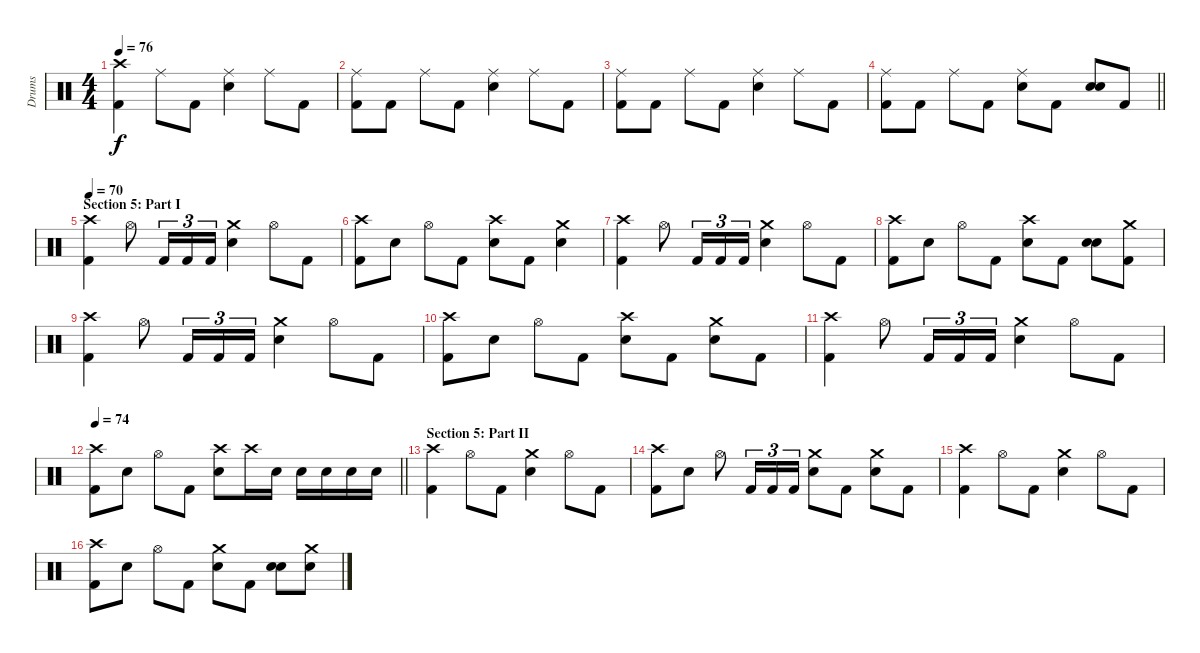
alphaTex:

\track ("Drums" "Drums") {instrument percussion}
\staff {score}
\articulation defaults
\ts (4 4)
\tempo 76
\clef neutral
\ks c
("Crash high (hit)" "Kick (hit) 2").4{dy f} "Ride (middle)".8 "Kick (hit) 2".8 ("Ride (middle)" "Electric Snare (hit)").4 "Ride (middle)".8 "Kick (hit) 2".8 |
("Ride (middle)" "Kick (hit) 2").8 "Kick (hit) 2".8 "Ride (middle)".8 "Kick (hit) 2".8 ("Ride (middle)" "Electric Snare (hit)").4 "Ride (middle)".8 "Kick (hit) 2".8 |
("Ride (middle)" "Kick (hit) 2").8 "Kick (hit) 2".8 "Ride (middle)".8 "Kick (hit) 2".8 ("Ride (middle)" "Electric Snare (hit)").4 "Ride (middle)".8 "Kick (hit) 2".8 |
\barLineRight lightlight
("Ride (middle)" "Kick (hit) 2").8 "Kick (hit) 2".8 "Ride (middle)".8 "Kick (hit) 2".8 ("Ride (middle)" "Electric Snare (hit)").8 "Kick (hit) 2".8 ("Electric Snare (hit)" "Electric Snare (hit)").8{bu 60} "Kick (hit) 2".8 |
\section ("" "Section 5: Part I")
\tempo 70
("Crash high (hit)" "Kick (hit) 2").4 "Hi-Hat (open)".8 "Kick (hit) 2".16{tu (3 2)} "Kick (hit) 2".16{tu (3 2)} "Kick (hit) 2".16{tu (3 2)} ("Crash medium (hit)" "Electric Snare (hit)").4 "Hi-Hat (open)".8 "Kick (hit) 2".8 |
("Crash high (hit)" "Kick (hit) 2").8 "Electric Snare (hit)".8 "Hi-Hat (open)".8 "Kick (hit) 2".8 ("Crash high (hit)" "Electric Snare (hit)").8 "Kick (hit) 2".8 ("Crash medium (hit)" "Electric Snare (hit)").4 |
("Crash high (hit)" "Kick (hit) 2").4 "Hi-Hat (open)".8 "Kick (hit) 2".16{tu (3 2)} "Kick (hit) 2".16{tu (3 2)} "Kick (hit) 2".16{tu (3 2)} ("Crash medium (hit)" "Electric Snare (hit)").4 "Hi-Hat (open)".8 "Kick (hit) 2".8 |
("Crash high (hit)" "Kick (hit) 2").8 "Electric Snare (hit)".8 "Hi-Hat (open)".8 "Kick (hit) 2".8 ("Crash high (hit)" "Electric Snare (hit)").8 "Kick (hit) 2".8 ("Electric Snare (hit)" "Electric Snare (hit)").8{bu 60} ("Crash medium (hit)" "Kick (hit) 2").8 |
("Crash high (hit)" "Kick (hit) 2").4 "Hi-Hat (open)".8 "Kick (hit) 2".16{tu (3 2)} "Kick (hit) 2".16{tu (3 2)} "Kick (hit) 2".16{tu (3 2)} ("Crash medium (hit)" "Electric Snare (hit)").4 "Hi-Hat (open)".8 "Kick (hit) 2".8 |
("Crash high (hit)" "Kick (hit) 2").8 "Electric Snare (hit)".8 "Hi-Hat (open)".8 "Kick (hit) 2".8 ("Crash high (hit)" "Electric Snare (hit)").8 "Kick (hit) 2".8 ("Crash medium (hit)" "Electric Snare (hit)").8 "Kick (hit) 2".8 |
("Crash high (hit)" "Kick (hit) 2").4 "Hi-Hat (open)".8 "Kick (hit) 2".16{tu (3 2)} "Kick (hit) 2".16{tu (3 2)} "Kick (hit) 2".16{tu (3 2)} ("Crash medium (hit)" "Electric Snare (hit)").4 "Hi-Hat (open)".8 "Kick (hit) 2".8 |
\tempo 74
\barLineRight lightlight
("Crash high (hit)" "Kick (hit) 2").8 "Electric Snare (hit)".8 "Hi-Hat (open)".8 "Kick (hit) 2".8 ("Crash high (hit)" "Electric Snare (hit)").8 "Crash high (hit)".16 "Electric Snare (hit)".16 "Electric Snare (hit)".16 "Electric Snare (hit)".16 "Electric Snare (hit)".16 "Electric Snare (hit)".16 |
\section ("" "Section 5: Part II")
("Crash high (hit)" "Kick (hit) 2").4 "Hi-Hat (open)".8 "Kick (hit) 2".8 ("Crash medium (hit)" "Electric Snare (hit)").4 "Hi-Hat (open)".8 "Kick (hit) 2".8 |
("Crash high (hit)" "Kick (hit) 2").8 "Electric Snare (hit)".8 "Hi-Hat (open)".8 "Kick (hit) 2".16{tu (3 2)} "Kick (hit) 2".16{tu (3 2)} "Kick (hit) 2".16{tu (3 2)} ("Crash medium (hit)" "Electric Snare (hit)").8 "Kick (hit) 2".8 ("Crash medium (hit)" "Electric Snare (hit)").8 "Kick (hit) 2".8 |
("Crash high (hit)" "Kick (hit) 2").4 "Hi-Hat (open)".8 "Kick (hit) 2".8 ("Crash medium (hit)" "Electric Snare (hit)").4 "Hi-Hat (open)".8 "Kick (hit) 2".8 |
("Crash high (hit)" "Kick (hit) 2").8 "Electric Snare (hit)".8 "Hi-Hat (open)".8 "Kick (hit) 2".8 ("Crash medium (hit)" "Electric Snare (hit)").8 "Kick (hit) 2".8 ("Electric Snare (hit)" "Electric Snare (hit)").8{bu 60} ("Crash medium (hit)" "Electric Snare (hit)").8
